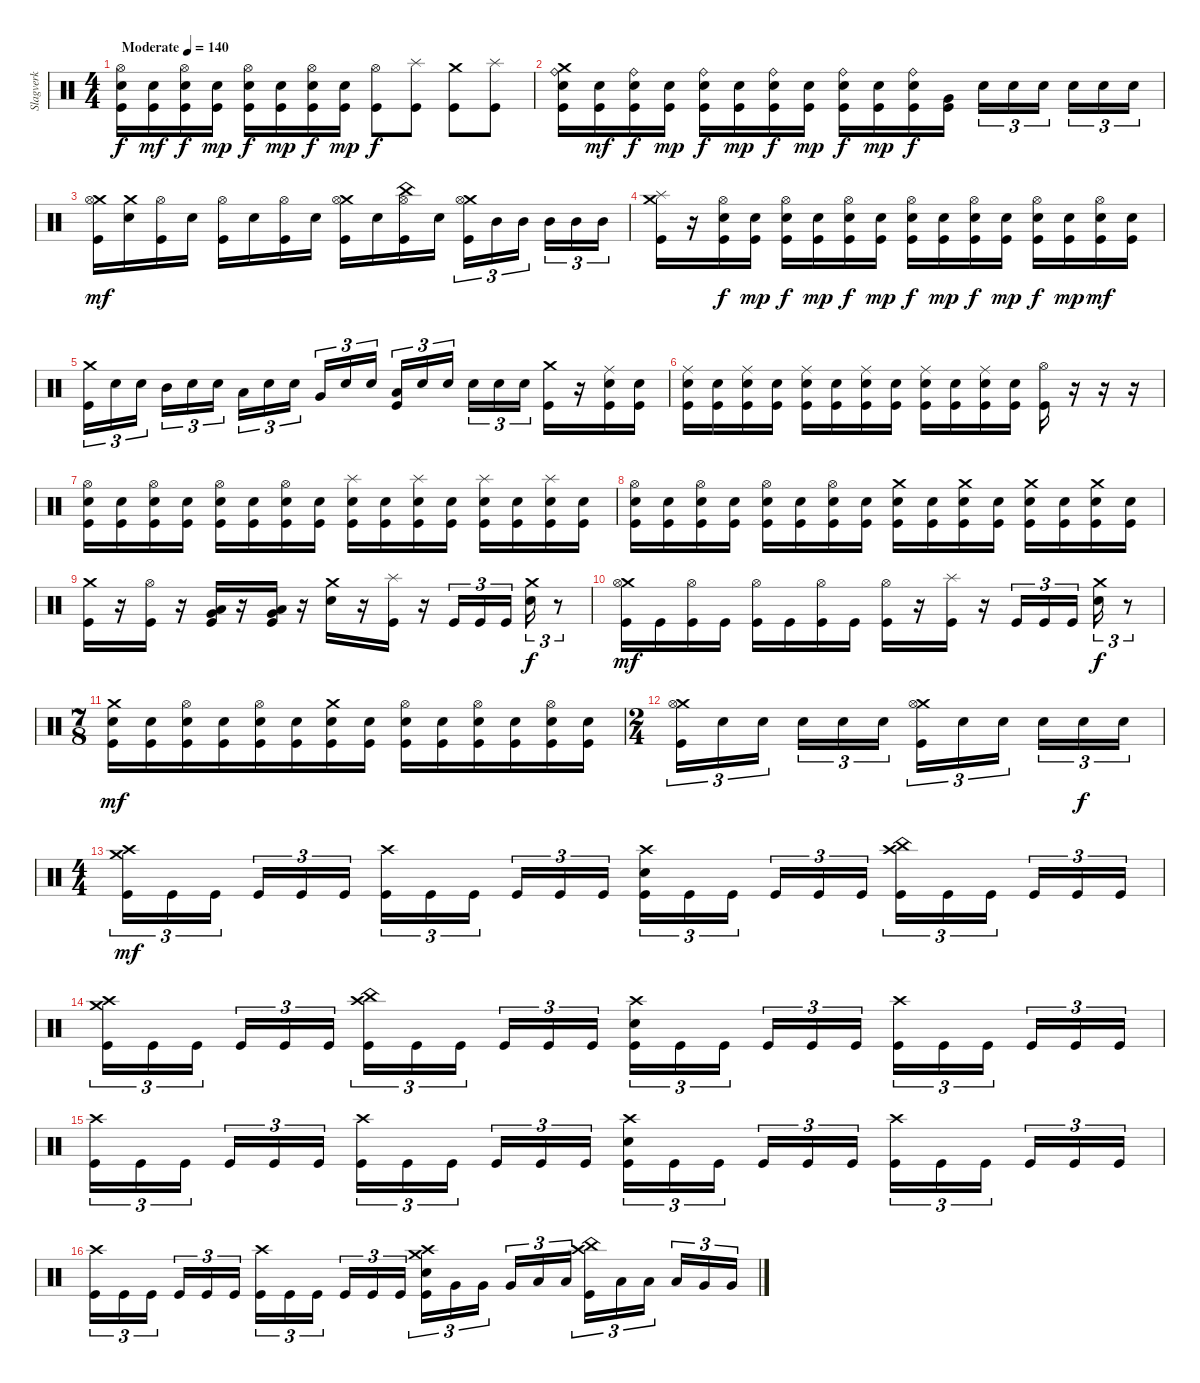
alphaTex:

\track ("Slagverk" "Slagverk") {instrument percussion}
\staff {score}
\articulation defaults
\ts (4 4)
\tempo (140 "Moderate")
\clef neutral
\ks c
("Hi-Hat (open)" "Electric Snare (hit)" "Kick (hit)").16{dy f} ("Electric Snare (hit)" "Kick (hit)").16{dy mf} ("Hi-Hat (open)" "Electric Snare (hit)" "Kick (hit)").16{dy f} ("Electric Snare (hit)" "Kick (hit)").16{dy mp} ("Hi-Hat (open)" "Electric Snare (hit)" "Kick (hit)").16{dy f} ("Electric Snare (hit)" "Kick (hit)").16{dy mp} ("Hi-Hat (open)" "Electric Snare (hit)" "Kick (hit)").16{dy f} ("Electric Snare (hit)" "Kick (hit)").16{dy mp} ("Hi-Hat (open)" "Kick (hit)").8{dy f} ("Splash (hit)" "Kick (hit)").8 ("Crash medium (hit)" "Kick (hit)").8 ("Splash (hit)" "Kick (hit)").8 |
("Crash medium (hit)" "Ride (bell)" "Electric Snare (hit)" "Kick (hit)").16 ("Electric Snare (hit)" "Kick (hit)").16{dy mf} ("Ride (bell)" "Electric Snare (hit)" "Kick (hit)").16{dy f} ("Electric Snare (hit)" "Kick (hit)").16{dy mp} ("Ride (bell)" "Electric Snare (hit)" "Kick (hit)").16{dy f} ("Electric Snare (hit)" "Kick (hit)").16{dy mp} ("Ride (bell)" "Electric Snare (hit)" "Kick (hit)").16{dy f} ("Electric Snare (hit)" "Kick (hit)").16{dy mp} ("Ride (bell)" "Electric Snare (hit)" "Kick (hit)").16{dy f} ("Electric Snare (hit)" "Kick (hit)").16{dy mp} ("Ride (bell)" "Electric Snare (hit)" "Kick (hit)").16{dy f} ("Very Low Tom (hit)" "Kick (hit)").16 "Electric Snare (hit)".16{tu (3 2)} "Electric Snare (hit)".16{tu (3 2)} "Electric Snare (hit)".16{tu (3 2) beam splitsecondary} "Electric Snare (hit)".16{tu (3 2)} "Electric Snare (hit)".16{tu (3 2)} "Electric Snare (hit)".16{tu (3 2)} |
("Crash medium (hit)" "Hi-Hat (open)" "Kick (hit)").16{dy mf} ("Crash medium (hit)" "Electric Snare (hit)").16 ("Hi-Hat (open)" "Kick (hit)").16 "Electric Snare (hit)".16 ("Hi-Hat (open)" "Kick (hit)").16 "Electric Snare (hit)".16 ("Hi-Hat (open)" "Kick (hit)").16 "Electric Snare (hit)".16 ("Crash medium (hit)" "Hi-Hat (open)" "Kick (hit)").16 "Electric Snare (hit)".16 ("China (hit)" "Hi-Hat (open)" "Kick (hit)").16 "Electric Snare (hit)".16 ("Crash medium (hit)" "Hi-Hat (open)" "Kick (hit)").16{tu (3 2)} "Mid Tom (hit)".16{tu (3 2)} "Mid Tom (hit)".16{tu (3 2) beam splitsecondary} "Mid Tom (hit)".16{tu (3 2)} "Mid Tom (hit)".16{tu (3 2)} "Mid Tom (hit)".16{tu (3 2)} |
("Crash medium (hit)" "Splash (hit)" "Kick (hit)").16 r.16 ("Hi-Hat (open)" "Electric Snare (hit)" "Kick (hit)").16{dy f} ("Electric Snare (hit)" "Kick (hit)").16{dy mp} ("Hi-Hat (open)" "Electric Snare (hit)" "Kick (hit)").16{dy f} ("Electric Snare (hit)" "Kick (hit)").16{dy mp} ("Hi-Hat (open)" "Electric Snare (hit)" "Kick (hit)").16{dy f} ("Electric Snare (hit)" "Kick (hit)").16{dy mp} ("Hi-Hat (open)" "Electric Snare (hit)" "Kick (hit)").16{dy f} ("Electric Snare (hit)" "Kick (hit)").16{dy mp} ("Hi-Hat (open)" "Electric Snare (hit)" "Kick (hit)").16{dy f} ("Electric Snare (hit)" "Kick (hit)").16{dy mp} ("Hi-Hat (open)" "Electric Snare (hit)" "Kick (hit)").16{dy f} ("Electric Snare (hit)" "Kick (hit)").16{dy mp} ("Hi-Hat (open)" "Electric Snare (hit)" "Kick (hit)").16{dy mf} ("Electric Snare (hit)" "Kick (hit)").16 |
("Crash medium (hit)" "Kick (hit)").16{tu (3 2)} "Electric Snare (hit)".16{tu (3 2)} "Electric Snare (hit)".16{tu (3 2) beam splitsecondary} "Mid Tom (hit)".16{tu (3 2)} "Electric Snare (hit)".16{tu (3 2)} "Electric Snare (hit)".16{tu (3 2)} "Low Tom (hit)".16{tu (3 2)} "Electric Snare (hit)".16{tu (3 2)} "Electric Snare (hit)".16{tu (3 2) beam splitsecondary} "Very Low Tom (hit)".16{tu (3 2)} "Electric Snare (hit)".16{tu (3 2)} "Electric Snare (hit)".16{tu (3 2)} ("Low Floor Tom (hit)" "Kick (hit)").16{tu (3 2)} "Electric Snare (hit)".16{tu (3 2)} "Electric Snare (hit)".16{tu (3 2) beam splitsecondary} "Electric Snare (hit)".16{tu (3 2)} "Electric Snare (hit)".16{tu (3 2)} "Electric Snare (hit)".16{tu (3 2)} ("Crash medium (hit)" "Kick (hit)").16 r.16 ("Ride (middle)" "Electric Snare (hit)" "Kick (hit)").16 ("Electric Snare (hit)" "Kick (hit)").16 |
("Ride (middle)" "Electric Snare (hit)" "Kick (hit)").16 ("Electric Snare (hit)" "Kick (hit)").16 ("Ride (middle)" "Electric Snare (hit)" "Kick (hit)").16 ("Electric Snare (hit)" "Kick (hit)").16 ("Ride (middle)" "Electric Snare (hit)" "Kick (hit)").16 ("Electric Snare (hit)" "Kick (hit)").16 ("Ride (middle)" "Electric Snare (hit)" "Kick (hit)").16 ("Electric Snare (hit)" "Kick (hit)").16 ("Ride (middle)" "Electric Snare (hit)" "Kick (hit)").16 ("Electric Snare (hit)" "Kick (hit)").16 ("Ride (middle)" "Electric Snare (hit)" "Kick (hit)").16 ("Electric Snare (hit)" "Kick (hit)").16 ("Hi-Hat (open)" "Kick (hit)").16 r.16 r.16 r.16 |
("Hi-Hat (open)" "Electric Snare (hit)" "Kick (hit)").16 ("Electric Snare (hit)" "Kick (hit)").16 ("Hi-Hat (open)" "Electric Snare (hit)" "Kick (hit)").16 ("Electric Snare (hit)" "Kick (hit)").16 ("Hi-Hat (open)" "Electric Snare (hit)" "Kick (hit)").16 ("Electric Snare (hit)" "Kick (hit)").16 ("Hi-Hat (open)" "Electric Snare (hit)" "Kick (hit)").16 ("Electric Snare (hit)" "Kick (hit)").16 ("Splash (hit)" "Electric Snare (hit)" "Kick (hit)").16 ("Electric Snare (hit)" "Kick (hit)").16 ("Splash (hit)" "Electric Snare (hit)" "Kick (hit)").16 ("Electric Snare (hit)" "Kick (hit)").16 ("Splash (hit)" "Electric Snare (hit)" "Kick (hit)").16 ("Electric Snare (hit)" "Kick (hit)").16 ("Splash (hit)" "Electric Snare (hit)" "Kick (hit)").16 ("Electric Snare (hit)" "Kick (hit)").16 |
("Hi-Hat (open)" "Electric Snare (hit)" "Kick (hit)").16 ("Electric Snare (hit)" "Kick (hit)").16 ("Hi-Hat (open)" "Electric Snare (hit)" "Kick (hit)").16 ("Electric Snare (hit)" "Kick (hit)").16 ("Hi-Hat (open)" "Electric Snare (hit)" "Kick (hit)").16 ("Electric Snare (hit)" "Kick (hit)").16 ("Hi-Hat (open)" "Electric Snare (hit)" "Kick (hit)").16 ("Electric Snare (hit)" "Kick (hit)").16 ("Crash medium (hit)" "Electric Snare (hit)" "Kick (hit)").16 ("Electric Snare (hit)" "Kick (hit)").16 ("Crash medium (hit)" "Electric Snare (hit)" "Kick (hit)").16 ("Electric Snare (hit)" "Kick (hit)").16 ("Crash medium (hit)" "Electric Snare (hit)" "Kick (hit)").16 ("Electric Snare (hit)" "Kick (hit)").16 ("Crash medium (hit)" "Electric Snare (hit)" "Kick (hit)").16 ("Electric Snare (hit)" "Kick (hit)").16 |
("Crash medium (hit)" "Kick (hit)").16 r.16 ("Hi-Hat (open)" "Kick (hit)").16 r.16 ("Very Low Tom (hit)" "Low Floor Tom (hit)" "Kick (hit)").16 r.16 ("Very Low Tom (hit)" "Low Floor Tom (hit)" "Kick (hit)").16 r.16 ("Crash medium (hit)" "Electric Snare (hit)").16 r.16 ("Splash (hit)" "Kick (hit)").16 r.16 "Kick (hit)".16{tu (3 2)} "Kick (hit)".16{tu (3 2)} "Kick (hit)".16{tu (3 2) beam splitsecondary} ("Crash medium (hit)" "Electric Snare (hit)").16{tu (3 2) dy f} r.8{tu (3 2)} |
("Crash medium (hit)" "Hi-Hat (open)" "Kick (hit)").16{dy mf} "Kick (hit)".16 ("Hi-Hat (open)" "Kick (hit)").16 "Kick (hit)".16 ("Hi-Hat (open)" "Kick (hit)").16 "Kick (hit)".16 ("Hi-Hat (open)" "Kick (hit)").16 "Kick (hit)".16 ("Hi-Hat (open)" "Kick (hit)").16 r.16 ("Splash (hit)" "Kick (hit)").16 r.16 "Kick (hit)".16{tu (3 2)} "Kick (hit)".16{tu (3 2)} "Kick (hit)".16{tu (3 2) beam splitsecondary} ("Crash medium (hit)" "Electric Snare (hit)").16{tu (3 2) dy f} r.8{tu (3 2)} |
\ts (7 8)
("Crash medium (hit)" "Electric Snare (hit)" "Kick (hit)").16{dy mf} ("Electric Snare (hit)" "Kick (hit)").16 ("Hi-Hat (open)" "Electric Snare (hit)" "Kick (hit)").16 ("Electric Snare (hit)" "Kick (hit)").16 ("Hi-Hat (open)" "Electric Snare (hit)" "Kick (hit)").16 ("Electric Snare (hit)" "Kick (hit)").16 ("Crash medium (hit)" "Electric Snare (hit)" "Kick (hit)").16 ("Electric Snare (hit)" "Kick (hit)").16 ("Hi-Hat (open)" "Electric Snare (hit)" "Kick (hit)").16 ("Electric Snare (hit)" "Kick (hit)").16 ("Hi-Hat (open)" "Electric Snare (hit)" "Kick (hit)").16 ("Electric Snare (hit)" "Kick (hit)").16 ("Hi-Hat (open)" "Electric Snare (hit)" "Kick (hit)").16 ("Electric Snare (hit)" "Kick (hit)").16 |
\ts (2 4)
("Crash medium (hit)" "Hi-Hat (open)" "Kick (hit)").16{tu (3 2)} "Electric Snare (hit)".16{tu (3 2)} "Electric Snare (hit)".16{tu (3 2) beam splitsecondary} "Electric Snare (hit)".16{tu (3 2)} "Electric Snare (hit)".16{tu (3 2)} "Electric Snare (hit)".16{tu (3 2)} ("Crash medium (hit)" "Hi-Hat (open)" "Kick (hit)").16{tu (3 2)} "Electric Snare (hit)".16{tu (3 2)} "Electric Snare (hit)".16{tu (3 2) beam splitsecondary} "Electric Snare (hit)".16{tu (3 2)} "Electric Snare (hit)".16{tu (3 2) dy f} "Electric Snare (hit)".16{tu (3 2)} |
\ts (4 4)
("Crash medium (hit)" "Crash high (hit)" "Kick (hit)").16{tu (3 2) dy mf} "Kick (hit)".16{tu (3 2)} "Kick (hit)".16{tu (3 2) beam splitsecondary} "Kick (hit)".16{tu (3 2)} "Kick (hit)".16{tu (3 2)} "Kick (hit)".16{tu (3 2)} ("Crash high (hit)" "Kick (hit)").16{tu (3 2)} "Kick (hit)".16{tu (3 2)} "Kick (hit)".16{tu (3 2) beam splitsecondary} "Kick (hit)".16{tu (3 2)} "Kick (hit)".16{tu (3 2)} "Kick (hit)".16{tu (3 2)} ("Crash high (hit)" "Electric Snare (hit)" "Kick (hit)").16{tu (3 2)} "Kick (hit)".16{tu (3 2)} "Kick (hit)".16{tu (3 2) beam splitsecondary} "Kick (hit)".16{tu (3 2)} "Kick (hit)".16{tu (3 2)} "Kick (hit)".16{tu (3 2)} ("China (hit)" "Crash high (hit)" "Kick (hit)").16{tu (3 2)} "Kick (hit)".16{tu (3 2)} "Kick (hit)".16{tu (3 2) beam splitsecondary} "Kick (hit)".16{tu (3 2)} "Kick (hit)".16{tu (3 2)} "Kick (hit)".16{tu (3 2)} |
("Crash medium (hit)" "Crash high (hit)" "Kick (hit)").16{tu (3 2)} "Kick (hit)".16{tu (3 2)} "Kick (hit)".16{tu (3 2) beam splitsecondary} "Kick (hit)".16{tu (3 2)} "Kick (hit)".16{tu (3 2)} "Kick (hit)".16{tu (3 2)} ("China (hit)" "Crash high (hit)" "Kick (hit)").16{tu (3 2)} "Kick (hit)".16{tu (3 2)} "Kick (hit)".16{tu (3 2) beam splitsecondary} "Kick (hit)".16{tu (3 2)} "Kick (hit)".16{tu (3 2)} "Kick (hit)".16{tu (3 2)} ("Crash high (hit)" "Electric Snare (hit)" "Kick (hit)").16{tu (3 2)} "Kick (hit)".16{tu (3 2)} "Kick (hit)".16{tu (3 2) beam splitsecondary} "Kick (hit)".16{tu (3 2)} "Kick (hit)".16{tu (3 2)} "Kick (hit)".16{tu (3 2)} ("Crash high (hit)" "Kick (hit)").16{tu (3 2)} "Kick (hit)".16{tu (3 2)} "Kick (hit)".16{tu (3 2) beam splitsecondary} "Kick (hit)".16{tu (3 2)} "Kick (hit)".16{tu (3 2)} "Kick (hit)".16{tu (3 2)} |
("Crash high (hit)" "Kick (hit)").16{tu (3 2)} "Kick (hit)".16{tu (3 2)} "Kick (hit)".16{tu (3 2) beam splitsecondary} "Kick (hit)".16{tu (3 2)} "Kick (hit)".16{tu (3 2)} "Kick (hit)".16{tu (3 2)} ("Crash high (hit)" "Kick (hit)").16{tu (3 2)} "Kick (hit)".16{tu (3 2)} "Kick (hit)".16{tu (3 2) beam splitsecondary} "Kick (hit)".16{tu (3 2)} "Kick (hit)".16{tu (3 2)} "Kick (hit)".16{tu (3 2)} ("Crash high (hit)" "Electric Snare (hit)" "Kick (hit)").16{tu (3 2)} "Kick (hit)".16{tu (3 2)} "Kick (hit)".16{tu (3 2) beam splitsecondary} "Kick (hit)".16{tu (3 2)} "Kick (hit)".16{tu (3 2)} "Kick (hit)".16{tu (3 2)} ("Crash high (hit)" "Kick (hit)").16{tu (3 2)} "Kick (hit)".16{tu (3 2)} "Kick (hit)".16{tu (3 2) beam splitsecondary} "Kick (hit)".16{tu (3 2)} "Kick (hit)".16{tu (3 2)} "Kick (hit)".16{tu (3 2)} |
("Crash high (hit)" "Kick (hit)").16{tu (3 2)} "Kick (hit)".16{tu (3 2)} "Kick (hit)".16{tu (3 2) beam splitsecondary} "Kick (hit)".16{tu (3 2)} "Kick (hit)".16{tu (3 2)} "Kick (hit)".16{tu (3 2)} ("Crash high (hit)" "Kick (hit)").16{tu (3 2)} "Kick (hit)".16{tu (3 2)} "Kick (hit)".16{tu (3 2) beam splitsecondary} "Kick (hit)".16{tu (3 2)} "Kick (hit)".16{tu (3 2)} "Kick (hit)".16{tu (3 2)} ("Crash medium (hit)" "Crash high (hit)" "Electric Snare (hit)" "Kick (hit)").16{tu (3 2)} "Very Low Tom (hit)".16{tu (3 2)} "Very Low Tom (hit)".16{tu (3 2) beam splitsecondary} "Very Low Tom (hit)".16{tu (3 2)} "Low Floor Tom (hit)".16{tu (3 2)} "Low Floor Tom (hit)".16{tu (3 2)} ("China (hit)" "Crash high (hit)" "Kick (hit)").16{tu (3 2)} "Low Tom (hit)".16{tu (3 2)} "Low Tom (hit)".16{tu (3 2) beam splitsecondary} "Low Tom (hit)".16{tu (3 2)} "Very Low Tom (hit)".16{tu (3 2)} "Very Low Tom (hit)".16{tu (3 2)}
